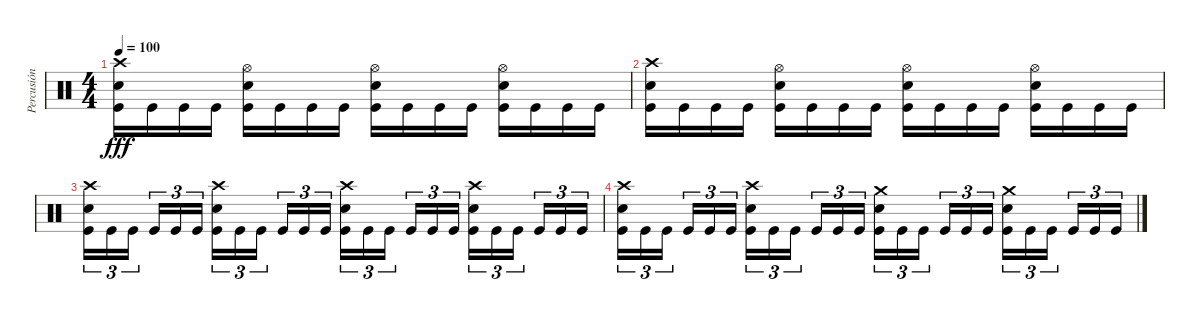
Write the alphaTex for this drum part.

\track ("Percusión" "Percusión") {instrument percussion}
\staff {score}
\articulation defaults
\ts (4 4)
\tempo 100
\clef neutral
\ks c
("Crash high (hit)" "Electric Snare (hit)" "Kick (hit)").16{dy fff} "Kick (hit)".16 "Kick (hit)".16 "Kick (hit)".16 ("Hi-Hat (open)" "Electric Snare (hit)" "Kick (hit)").16 "Kick (hit)".16 "Kick (hit)".16 "Kick (hit)".16 ("Hi-Hat (open)" "Electric Snare (hit)" "Kick (hit)").16 "Kick (hit)".16 "Kick (hit)".16 "Kick (hit)".16 ("Hi-Hat (open)" "Electric Snare (hit)" "Kick (hit)").16 "Kick (hit)".16 "Kick (hit)".16 "Kick (hit)".16 |
("Crash high (hit)" "Electric Snare (hit)" "Kick (hit)").16 "Kick (hit)".16 "Kick (hit)".16 "Kick (hit)".16 ("Hi-Hat (open)" "Electric Snare (hit)" "Kick (hit)").16 "Kick (hit)".16 "Kick (hit)".16 "Kick (hit)".16 ("Hi-Hat (open)" "Electric Snare (hit)" "Kick (hit)").16 "Kick (hit)".16 "Kick (hit)".16 "Kick (hit)".16 ("Hi-Hat (open)" "Electric Snare (hit)" "Kick (hit)").16 "Kick (hit)".16 "Kick (hit)".16 "Kick (hit)".16 |
("Crash high (hit)" "Electric Snare (hit)" "Kick (hit)").16{tu (3 2)} "Kick (hit)".16{tu (3 2)} "Kick (hit)".16{tu (3 2)} "Kick (hit)".16{tu (3 2)} "Kick (hit)".16{tu (3 2)} "Kick (hit)".16{tu (3 2)} ("Crash high (hit)" "Electric Snare (hit)" "Kick (hit)").16{tu (3 2)} "Kick (hit)".16{tu (3 2)} "Kick (hit)".16{tu (3 2)} "Kick (hit)".16{tu (3 2)} "Kick (hit)".16{tu (3 2)} "Kick (hit)".16{tu (3 2)} ("Crash high (hit)" "Electric Snare (hit)" "Kick (hit)").16{tu (3 2)} "Kick (hit)".16{tu (3 2)} "Kick (hit)".16{tu (3 2)} "Kick (hit)".16{tu (3 2)} "Kick (hit)".16{tu (3 2)} "Kick (hit)".16{tu (3 2)} ("Crash high (hit)" "Electric Snare (hit)" "Kick (hit)").16{tu (3 2)} "Kick (hit)".16{tu (3 2)} "Kick (hit)".16{tu (3 2)} "Kick (hit)".16{tu (3 2)} "Kick (hit)".16{tu (3 2)} "Kick (hit)".16{tu (3 2)} |
("Crash high (hit)" "Electric Snare (hit)" "Kick (hit)").16{tu (3 2)} "Kick (hit)".16{tu (3 2)} "Kick (hit)".16{tu (3 2)} "Kick (hit)".16{tu (3 2)} "Kick (hit)".16{tu (3 2)} "Kick (hit)".16{tu (3 2)} ("Crash high (hit)" "Electric Snare (hit)" "Kick (hit)").16{tu (3 2)} "Kick (hit)".16{tu (3 2)} "Kick (hit)".16{tu (3 2)} "Kick (hit)".16{tu (3 2)} "Kick (hit)".16{tu (3 2)} "Kick (hit)".16{tu (3 2)} ("Crash medium (hit)" "Electric Snare (hit)" "Kick (hit)").16{tu (3 2)} "Kick (hit)".16{tu (3 2)} "Kick (hit)".16{tu (3 2)} "Kick (hit)".16{tu (3 2)} "Kick (hit)".16{tu (3 2)} "Kick (hit)".16{tu (3 2)} ("Crash medium (hit)" "Electric Snare (hit)" "Kick (hit)").16{tu (3 2)} "Kick (hit)".16{tu (3 2)} "Kick (hit)".16{tu (3 2)} "Kick (hit)".16{tu (3 2)} "Kick (hit)".16{tu (3 2)} "Kick (hit)".16{tu (3 2)}
